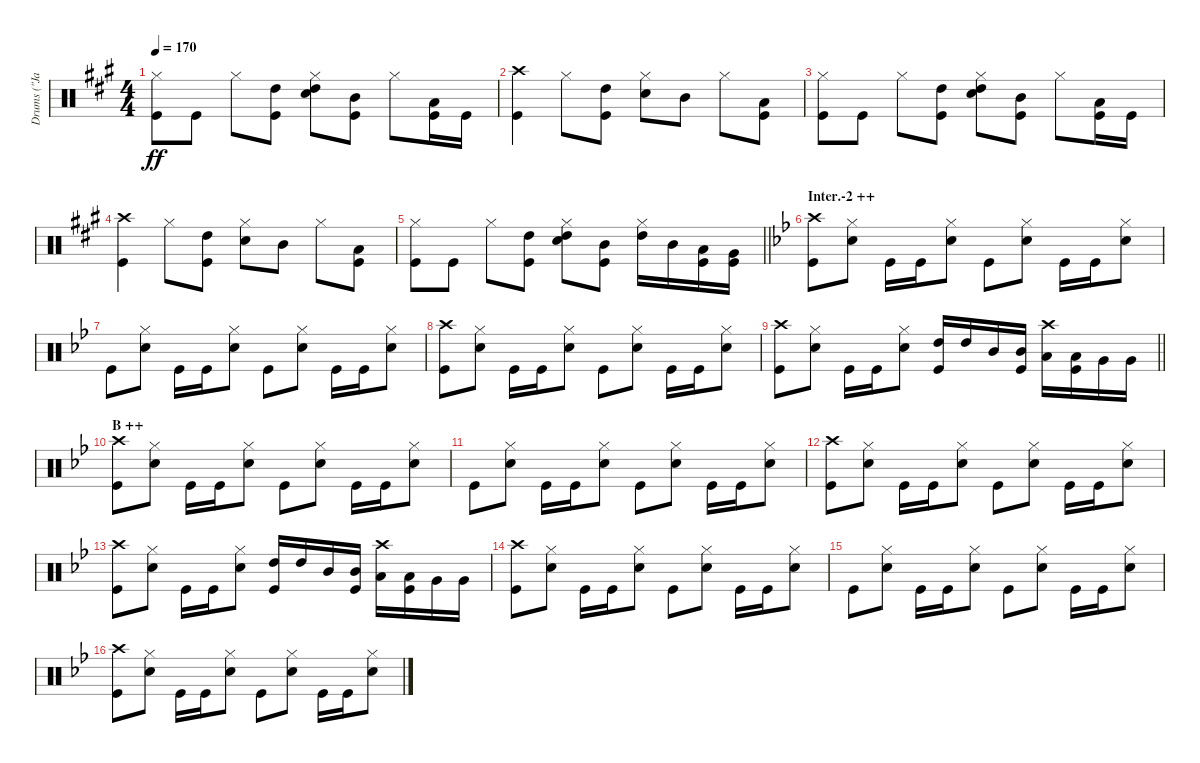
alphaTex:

\track ("Drums (\"Jane\")" "Drums (\"Ja") {instrument percussion}
\staff {score}
\articulation defaults
\ts (4 4)
\tempo 170
\clef neutral
\ks a
("Hi-Hat (closed)" "Kick (hit)").8{dy ff} "Kick (hit)".8 "Hi-Hat (closed)".8 ("High Tom (hit)" "Kick (hit)").8 ("Hi-Hat (closed)" "Snare (hit) 2" "High Tom (hit)").8 ("Mid Tom (hit)" "Kick (hit)").8 "Hi-Hat (closed)".8 ("Low Tom (hit)" "Kick (hit)").16 "Kick (hit)".16 |
("Crash high (hit)" "Kick (hit)").4 "Hi-Hat (closed)".8 ("High Tom (hit)" "Kick (hit)").8 ("Hi-Hat (closed)" "Snare (hit) 2").8 "Mid Tom (hit)".8 "Hi-Hat (closed)".8 ("Low Tom (hit)" "Kick (hit)").8 |
("Hi-Hat (closed)" "Kick (hit)").8 "Kick (hit)".8 "Hi-Hat (closed)".8 ("High Tom (hit)" "Kick (hit)").8 ("Hi-Hat (closed)" "Snare (hit) 2" "High Tom (hit)").8 ("Mid Tom (hit)" "Kick (hit)").8 "Hi-Hat (closed)".8 ("Low Tom (hit)" "Kick (hit)").16 "Kick (hit)".16 |
("Crash high (hit)" "Kick (hit)").4 "Hi-Hat (closed)".8 ("High Tom (hit)" "Kick (hit)").8 ("Hi-Hat (closed)" "Snare (hit) 2").8 "Mid Tom (hit)".8 "Hi-Hat (closed)".8 ("Low Tom (hit)" "Kick (hit)").8 |
\barLineRight lightlight
("Hi-Hat (closed)" "Kick (hit)").8 "Kick (hit)".8 "Hi-Hat (closed)".8 ("High Tom (hit)" "Kick (hit)").8 ("Hi-Hat (closed)" "Snare (hit) 2" "High Tom (hit)").8 ("Mid Tom (hit)" "Kick (hit)").8 ("Hi-Hat (closed)" "High Tom (hit)").16 "Mid Tom (hit)".16 ("Low Tom (hit)" "Kick (hit)").16 ("Very Low Tom (hit)" "Kick (hit)").16 |
\section ("" "Inter.-2 ++")
\ks bb
("Crash high (hit)" "Kick (hit)").8 ("Hi-Hat (closed)" "Snare (hit) 2").8 "Kick (hit)".16 "Kick (hit)".16 ("Hi-Hat (closed)" "Snare (hit) 2").8 "Kick (hit)".8 ("Hi-Hat (closed)" "Snare (hit) 2").8 "Kick (hit)".16 "Kick (hit)".16 ("Hi-Hat (closed)" "Snare (hit) 2").8 |
"Kick (hit)".8 ("Hi-Hat (closed)" "Snare (hit) 2").8 "Kick (hit)".16 "Kick (hit)".16 ("Hi-Hat (closed)" "Snare (hit) 2").8 "Kick (hit)".8 ("Hi-Hat (closed)" "Snare (hit) 2").8 "Kick (hit)".16 "Kick (hit)".16 ("Hi-Hat (closed)" "Snare (hit) 2").8 |
("Crash high (hit)" "Kick (hit)").8 ("Hi-Hat (closed)" "Snare (hit) 2").8 "Kick (hit)".16 "Kick (hit)".16 ("Hi-Hat (closed)" "Snare (hit) 2").8 "Kick (hit)".8 ("Hi-Hat (closed)" "Snare (hit) 2").8 "Kick (hit)".16 "Kick (hit)".16 ("Hi-Hat (closed)" "Snare (hit) 2").8 |
\barLineRight lightlight
("Crash high (hit)" "Kick (hit)").8 ("Hi-Hat (closed)" "Snare (hit) 2").8 "Kick (hit)".16 "Kick (hit)".16 ("Hi-Hat (closed)" "Snare (hit) 2").8 ("High Tom (hit)" "Kick (hit)").16 "High Tom (hit)".16 "Mid Tom (hit)".16 ("Mid Tom (hit)" "Kick (hit)").16 ("Crash high (hit)" "Low Tom (hit)").16 ("Low Tom (hit)" "Kick (hit)").16 "Very Low Tom (hit)".16 "Very Low Tom (hit)".16 |
\section ("" "B ++")
("Crash high (hit)" "Kick (hit)").8 ("Hi-Hat (closed)" "Snare (hit) 2").8 "Kick (hit)".16 "Kick (hit)".16 ("Hi-Hat (closed)" "Snare (hit) 2").8 "Kick (hit)".8 ("Hi-Hat (closed)" "Snare (hit) 2").8 "Kick (hit)".16 "Kick (hit)".16 ("Hi-Hat (closed)" "Snare (hit) 2").8 |
"Kick (hit)".8 ("Hi-Hat (closed)" "Snare (hit) 2").8 "Kick (hit)".16 "Kick (hit)".16 ("Hi-Hat (closed)" "Snare (hit) 2").8 "Kick (hit)".8 ("Hi-Hat (closed)" "Snare (hit) 2").8 "Kick (hit)".16 "Kick (hit)".16 ("Hi-Hat (closed)" "Snare (hit) 2").8 |
("Crash high (hit)" "Kick (hit)").8 ("Hi-Hat (closed)" "Snare (hit) 2").8 "Kick (hit)".16 "Kick (hit)".16 ("Hi-Hat (closed)" "Snare (hit) 2").8 "Kick (hit)".8 ("Hi-Hat (closed)" "Snare (hit) 2").8 "Kick (hit)".16 "Kick (hit)".16 ("Hi-Hat (closed)" "Snare (hit) 2").8 |
("Crash high (hit)" "Kick (hit)").8 ("Hi-Hat (closed)" "Snare (hit) 2").8 "Kick (hit)".16 "Kick (hit)".16 ("Hi-Hat (closed)" "Snare (hit) 2").8 ("High Tom (hit)" "Kick (hit)").16 "High Tom (hit)".16 "Mid Tom (hit)".16 ("Mid Tom (hit)" "Kick (hit)").16 ("Crash high (hit)" "Low Tom (hit)").16 ("Low Tom (hit)" "Kick (hit)").16 "Very Low Tom (hit)".16 "Very Low Tom (hit)".16 |
("Crash high (hit)" "Kick (hit)").8 ("Hi-Hat (closed)" "Snare (hit) 2").8 "Kick (hit)".16 "Kick (hit)".16 ("Hi-Hat (closed)" "Snare (hit) 2").8 "Kick (hit)".8 ("Hi-Hat (closed)" "Snare (hit) 2").8 "Kick (hit)".16 "Kick (hit)".16 ("Hi-Hat (closed)" "Snare (hit) 2").8 |
"Kick (hit)".8 ("Hi-Hat (closed)" "Snare (hit) 2").8 "Kick (hit)".16 "Kick (hit)".16 ("Hi-Hat (closed)" "Snare (hit) 2").8 "Kick (hit)".8 ("Hi-Hat (closed)" "Snare (hit) 2").8 "Kick (hit)".16 "Kick (hit)".16 ("Hi-Hat (closed)" "Snare (hit) 2").8 |
("Crash high (hit)" "Kick (hit)").8 ("Hi-Hat (closed)" "Snare (hit) 2").8 "Kick (hit)".16 "Kick (hit)".16 ("Hi-Hat (closed)" "Snare (hit) 2").8 "Kick (hit)".8 ("Hi-Hat (closed)" "Snare (hit) 2").8 "Kick (hit)".16 "Kick (hit)".16 ("Hi-Hat (closed)" "Snare (hit) 2").8
